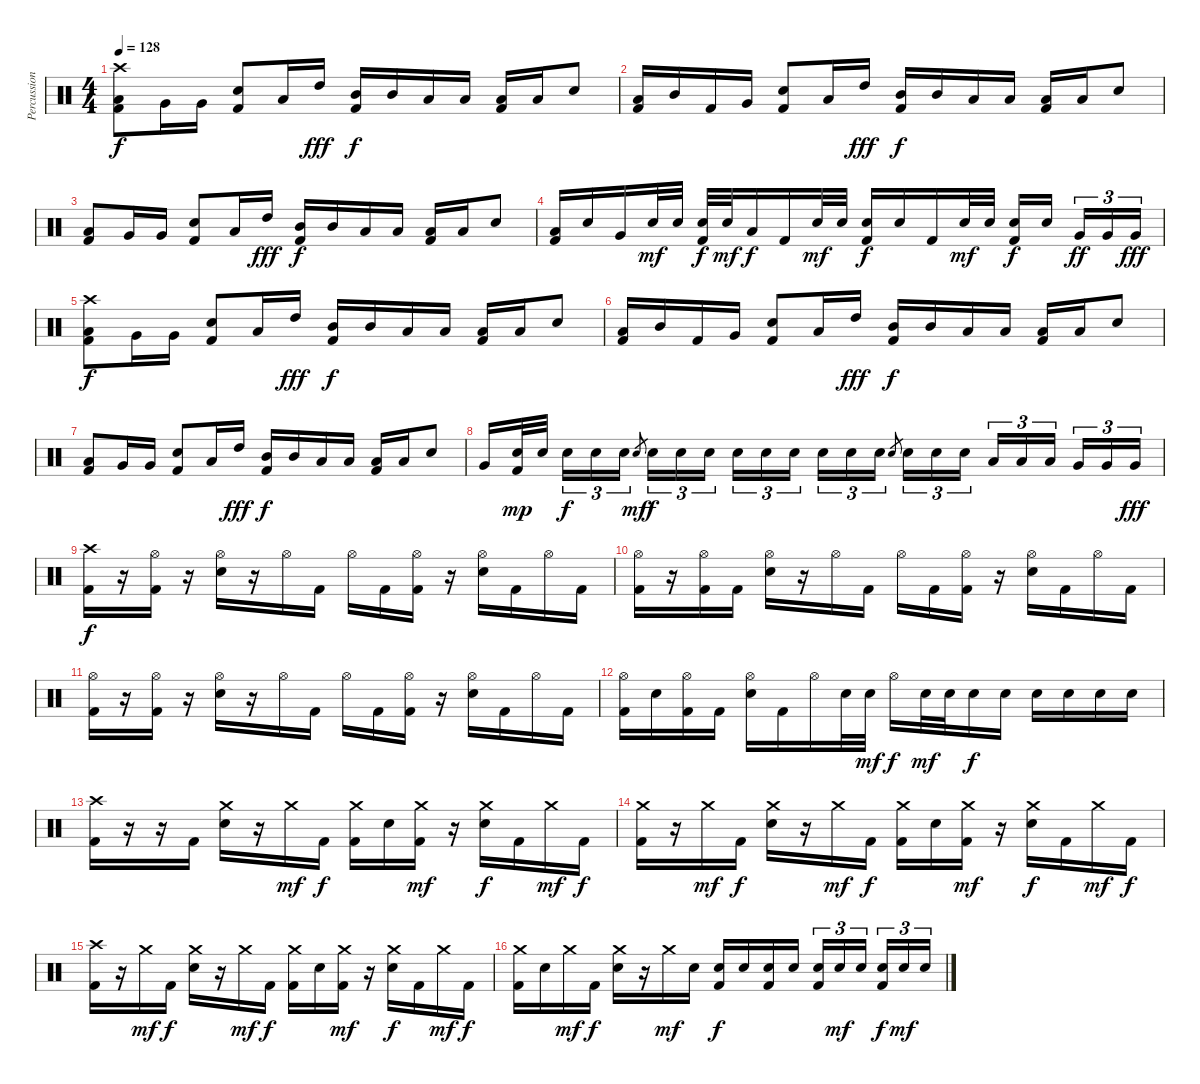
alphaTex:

\track ("Percussion" "Percussion") {instrument percussion}
\staff {score}
\articulation defaults
\ts (4 4)
\tempo 128
\clef neutral
\ks c
("Crash high (hit)" "Low Tom (hit)" "Kick (hit) 2").8{dy f} "Very Low Tom (hit)".16 "Very Low Tom (hit)".16 ("Electric Snare (hit)" "Kick (hit) 2").8 "Low Tom (hit)".16 "High Tom (hit)".16{dy fff} ("Mid Tom (hit)" "Kick (hit) 2").16{dy f} "Mid Tom (hit)".16 "Low Tom (hit)".16 "Low Tom (hit)".16 ("Low Floor Tom (hit)" "Kick (hit) 2").16 "Low Floor Tom (hit)".16 "Electric Snare (hit)".8 |
("Low Tom (hit)" "Kick (hit) 2").16 "Mid Tom (hit)".16 "Kick (hit) 2".16 "Very Low Tom (hit)".16 ("Electric Snare (hit)" "Kick (hit) 2").8 "Low Tom (hit)".16 "High Tom (hit)".16{dy fff} ("Mid Tom (hit)" "Kick (hit) 2").16{dy f} "Mid Tom (hit)".16 "Low Tom (hit)".16 "Low Tom (hit)".16 ("Low Floor Tom (hit)" "Kick (hit) 2").16 "Low Floor Tom (hit)".16 "Electric Snare (hit)".8 |
("Low Tom (hit)" "Kick (hit) 2").8 "Very Low Tom (hit)".16 "Very Low Tom (hit)".16 ("Electric Snare (hit)" "Kick (hit) 2").8 "Low Tom (hit)".16 "High Tom (hit)".16{dy fff} ("Mid Tom (hit)" "Kick (hit) 2").16{dy f} "Mid Tom (hit)".16 "Low Tom (hit)".16 "Low Tom (hit)".16 ("Low Floor Tom (hit)" "Kick (hit) 2").16 "Low Floor Tom (hit)".16 "Electric Snare (hit)".8 |
("Low Tom (hit)" "Kick (hit) 2").16 "Electric Snare (hit)".16 "Very Low Tom (hit)".16 "Electric Snare (hit)".32{dy mf} "Electric Snare (hit)".32 ("Electric Snare (hit)" "Kick (hit) 2").32{dy f} "Electric Snare (hit)".32{dy mf} "Low Tom (hit)".16{dy f} "Kick (hit) 2".16 "Electric Snare (hit)".32{dy mf} "Electric Snare (hit)".32 ("Electric Snare (hit)" "Kick (hit) 2").16{dy f} "Electric Snare (hit)".16 "Kick (hit) 2".16 "Electric Snare (hit)".32{dy mf} "Electric Snare (hit)".32 ("Electric Snare (hit)" "Kick (hit) 2").16{dy f} "Electric Snare (hit)".16 "Very Low Tom (hit)".16{tu (3 2) dy ff} "Very Low Tom (hit)".16{tu (3 2)} "Very Low Tom (hit)".16{tu (3 2) dy fff} |
("Crash high (hit)" "Low Tom (hit)" "Kick (hit) 2").8{dy f} "Very Low Tom (hit)".16 "Very Low Tom (hit)".16 ("Electric Snare (hit)" "Kick (hit) 2").8 "Low Tom (hit)".16 "High Tom (hit)".16{dy fff} ("Mid Tom (hit)" "Kick (hit) 2").16{dy f} "Mid Tom (hit)".16 "Low Tom (hit)".16 "Low Tom (hit)".16 ("Low Floor Tom (hit)" "Kick (hit) 2").16 "Low Floor Tom (hit)".16 "Electric Snare (hit)".8 |
("Low Tom (hit)" "Kick (hit) 2").16 "Mid Tom (hit)".16 "Kick (hit) 2".16 "Very Low Tom (hit)".16 ("Electric Snare (hit)" "Kick (hit) 2").8 "Low Tom (hit)".16 "High Tom (hit)".16{dy fff} ("Mid Tom (hit)" "Kick (hit) 2").16{dy f} "Mid Tom (hit)".16 "Low Tom (hit)".16 "Low Tom (hit)".16 ("Low Floor Tom (hit)" "Kick (hit) 2").16 "Low Floor Tom (hit)".16 "Electric Snare (hit)".8 |
("Low Tom (hit)" "Kick (hit) 2").8 "Very Low Tom (hit)".16 "Very Low Tom (hit)".16 ("Electric Snare (hit)" "Kick (hit) 2").8 "Low Tom (hit)".16 "High Tom (hit)".16{dy fff} ("Mid Tom (hit)" "Kick (hit) 2").16{dy f} "Mid Tom (hit)".16 "Low Tom (hit)".16 "Low Tom (hit)".16 ("Low Floor Tom (hit)" "Kick (hit) 2").16 "Low Floor Tom (hit)".16 "Electric Snare (hit)".8 |
"Very Low Tom (hit)".16 ("Electric Snare (hit)" "Kick (hit) 2").32{dy mp} "Electric Snare (hit)".32 "Electric Snare (hit)".16{tu (3 2) dy f} "Electric Snare (hit)".16{tu (3 2)} "Electric Snare (hit)".16{tu (3 2)} "Electric Snare (hit)".8{gr dy mf} "Electric Snare (hit)".16{tu (3 2) dy f} "Electric Snare (hit)".16{tu (3 2)} "Electric Snare (hit)".16{tu (3 2)} "Electric Snare (hit)".16{tu (3 2)} "Electric Snare (hit)".16{tu (3 2)} "Electric Snare (hit)".16{tu (3 2)} "Electric Snare (hit)".16{tu (3 2)} "Electric Snare (hit)".16{tu (3 2)} "Electric Snare (hit)".16{tu (3 2)} "Electric Snare (hit)".8{gr} "Electric Snare (hit)".16{tu (3 2)} "Electric Snare (hit)".16{tu (3 2)} "Electric Snare (hit)".16{tu (3 2)} "Low Tom (hit)".16{tu (3 2)} "Low Tom (hit)".16{tu (3 2)} "Low Tom (hit)".16{tu (3 2)} "Very Low Tom (hit)".16{tu (3 2)} "Very Low Tom (hit)".16{tu (3 2)} "Very Low Tom (hit)".16{tu (3 2) dy fff} |
("Crash high (hit)" "Kick (hit) 2").16{dy f} r.16 ("Hi-Hat (open)" "Kick (hit) 2").16 r.16 ("Hi-Hat (open)" "Electric Snare (hit)").16 r.16 "Hi-Hat (open)".16 "Kick (hit) 2".16 "Hi-Hat (open)".16 "Kick (hit) 2".16 ("Hi-Hat (open)" "Kick (hit) 2").16 r.16 ("Hi-Hat (open)" "Electric Snare (hit)").16 "Kick (hit) 2".16 "Hi-Hat (open)".16 "Kick (hit) 2".16 |
("Hi-Hat (open)" "Kick (hit) 2").16 r.16 ("Hi-Hat (open)" "Kick (hit) 2").16 "Kick (hit) 2".16 ("Hi-Hat (open)" "Electric Snare (hit)").16 r.16 "Hi-Hat (open)".16 "Kick (hit) 2".16 "Hi-Hat (open)".16 "Kick (hit) 2".16 ("Hi-Hat (open)" "Kick (hit) 2").16 r.16 ("Hi-Hat (open)" "Electric Snare (hit)").16 "Kick (hit) 2".16 "Hi-Hat (open)".16 "Kick (hit) 2".16 |
("Hi-Hat (open)" "Kick (hit) 2").16 r.16 ("Hi-Hat (open)" "Kick (hit) 2").16 r.16 ("Hi-Hat (open)" "Electric Snare (hit)").16 r.16 "Hi-Hat (open)".16 "Kick (hit) 2".16 "Hi-Hat (open)".16 "Kick (hit) 2".16 ("Hi-Hat (open)" "Kick (hit) 2").16 r.16 ("Hi-Hat (open)" "Electric Snare (hit)").16 "Kick (hit) 2".16 "Hi-Hat (open)".16 "Kick (hit) 2".16 |
("Hi-Hat (open)" "Kick (hit) 2").16 "Electric Snare (hit)".16 ("Hi-Hat (open)" "Kick (hit) 2").16 "Kick (hit) 2".16 ("Hi-Hat (open)" "Electric Snare (hit)").16 "Kick (hit) 2".16 "Hi-Hat (open)".16 "Electric Snare (hit)".32 "Electric Snare (hit)".32{dy mf} "Hi-Hat (open)".16{dy f} "Electric Snare (hit)".32{dy mf} "Electric Snare (hit)".32 "Electric Snare (hit)".16{dy f} "Electric Snare (hit)".16 "Electric Snare (hit)".16 "Electric Snare (hit)".16 "Electric Snare (hit)".16 "Electric Snare (hit)".16 |
("Crash high (hit)" "Kick (hit) 2").16 r.16 r.16 "Kick (hit) 2".16 ("Crash medium (hit)" "Electric Snare (hit)").16 r.16 "Crash medium (hit)".16{dy mf} "Kick (hit) 2".16{dy f} ("Crash medium (hit)" "Kick (hit) 2").16 "Electric Snare (hit)".16 ("Crash medium (hit)" "Kick (hit) 2").16{dy mf} r.16 ("Crash medium (hit)" "Electric Snare (hit)").16{dy f} "Kick (hit) 2".16 "Crash medium (hit)".16{dy mf} "Kick (hit) 2".16{dy f} |
("Crash medium (hit)" "Kick (hit) 2").16 r.16 "Crash medium (hit)".16{dy mf} "Kick (hit) 2".16{dy f} ("Crash medium (hit)" "Electric Snare (hit)").16 r.16 "Crash medium (hit)".16{dy mf} "Kick (hit) 2".16{dy f} ("Crash medium (hit)" "Kick (hit) 2").16 "Electric Snare (hit)".16 ("Crash medium (hit)" "Kick (hit) 2").16{dy mf} r.16 ("Crash medium (hit)" "Electric Snare (hit)").16{dy f} "Kick (hit) 2".16 "Crash medium (hit)".16{dy mf} "Kick (hit) 2".16{dy f} |
("Crash high (hit)" "Kick (hit) 2").16 r.16 "Crash medium (hit)".16{dy mf} "Kick (hit) 2".16{dy f} ("Crash medium (hit)" "Electric Snare (hit)").16 r.16 "Crash medium (hit)".16{dy mf} "Kick (hit) 2".16{dy f} ("Crash medium (hit)" "Kick (hit) 2").16 "Electric Snare (hit)".16 ("Crash medium (hit)" "Kick (hit) 2").16{dy mf} r.16 ("Crash medium (hit)" "Electric Snare (hit)").16{dy f} "Kick (hit) 2".16 "Crash medium (hit)".16{dy mf} "Kick (hit) 2".16{dy f} |
("Crash medium (hit)" "Kick (hit) 2").16 "Electric Snare (hit)".16 "Crash medium (hit)".16{dy mf} "Kick (hit) 2".16{dy f} ("Crash medium (hit)" "Electric Snare (hit)").16 r.16 "Crash medium (hit)".16{dy mf} "Electric Snare (hit)".16 ("Electric Snare (hit)" "Kick (hit) 2").16{dy f} "Electric Snare (hit)".16 ("Electric Snare (hit)" "Kick (hit) 2").16 "Electric Snare (hit)".16 ("Electric Snare (hit)" "Kick (hit) 2").16{tu (3 2)} "Electric Snare (hit)".16{tu (3 2) dy mf} "Electric Snare (hit)".16{tu (3 2)} ("Electric Snare (hit)" "Kick (hit) 2").16{tu (3 2) dy f} "Electric Snare (hit)".16{tu (3 2) dy mf} "Electric Snare (hit)".16{tu (3 2)}
